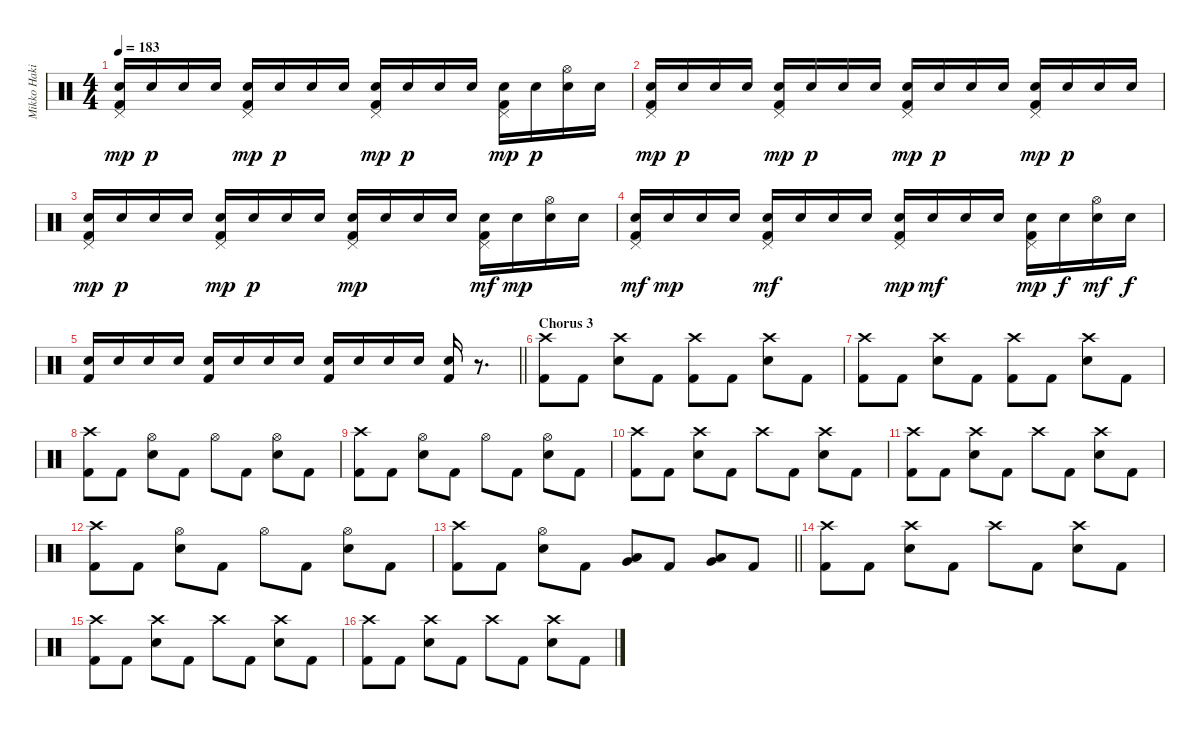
\track ("Mikko Hakila - Drums" "Mikko Haki") {instrument percussion}
\staff {score}
\articulation defaults
\ts (4 4)
\tempo 183
\clef neutral
\ks c
("Pedal Hi-Hat (hit)" "Electric Snare (hit)" "Kick (hit) 2").16{dy mp} "Electric Snare (hit)".16{dy p} "Electric Snare (hit)".16 "Electric Snare (hit)".16 ("Pedal Hi-Hat (hit)" "Electric Snare (hit)" "Kick (hit) 2").16{dy mp} "Electric Snare (hit)".16{dy p} "Electric Snare (hit)".16 "Electric Snare (hit)".16 ("Pedal Hi-Hat (hit)" "Electric Snare (hit)" "Kick (hit) 2").16{dy mp} "Electric Snare (hit)".16{dy p} "Electric Snare (hit)".16 "Electric Snare (hit)".16 ("Pedal Hi-Hat (hit)" "Electric Snare (hit)" "Kick (hit) 2").16{dy mp} "Electric Snare (hit)".16{dy p} ("Hi-Hat (open)" "Electric Snare (hit)").16 "Electric Snare (hit)".16 |
("Pedal Hi-Hat (hit)" "Electric Snare (hit)" "Kick (hit) 2").16{dy mp} "Electric Snare (hit)".16{dy p} "Electric Snare (hit)".16 "Electric Snare (hit)".16 ("Pedal Hi-Hat (hit)" "Electric Snare (hit)" "Kick (hit) 2").16{dy mp} "Electric Snare (hit)".16{dy p} "Electric Snare (hit)".16 "Electric Snare (hit)".16 ("Pedal Hi-Hat (hit)" "Electric Snare (hit)" "Kick (hit) 2").16{dy mp} "Electric Snare (hit)".16{dy p} "Electric Snare (hit)".16 "Electric Snare (hit)".16 ("Pedal Hi-Hat (hit)" "Electric Snare (hit)" "Kick (hit) 2").16{dy mp} "Electric Snare (hit)".16{dy p} "Electric Snare (hit)".16 "Electric Snare (hit)".16 |
("Pedal Hi-Hat (hit)" "Electric Snare (hit)" "Kick (hit) 2").16{dy mp} "Electric Snare (hit)".16{dy p} "Electric Snare (hit)".16 "Electric Snare (hit)".16 ("Pedal Hi-Hat (hit)" "Electric Snare (hit)" "Kick (hit) 2").16{dy mp} "Electric Snare (hit)".16{dy p} "Electric Snare (hit)".16 "Electric Snare (hit)".16 ("Pedal Hi-Hat (hit)" "Electric Snare (hit)" "Kick (hit) 2").16{dy mp} "Electric Snare (hit)".16 "Electric Snare (hit)".16 "Electric Snare (hit)".16 ("Pedal Hi-Hat (hit)" "Electric Snare (hit)" "Kick (hit) 2").16{dy mf} "Electric Snare (hit)".16{dy mp} ("Hi-Hat (open)" "Electric Snare (hit)").16 "Electric Snare (hit)".16 |
("Pedal Hi-Hat (hit)" "Electric Snare (hit)" "Kick (hit) 2").16{dy mf} "Electric Snare (hit)".16{dy mp} "Electric Snare (hit)".16 "Electric Snare (hit)".16 ("Pedal Hi-Hat (hit)" "Electric Snare (hit)" "Kick (hit) 2").16{dy mf} "Electric Snare (hit)".16 "Electric Snare (hit)".16 "Electric Snare (hit)".16 ("Pedal Hi-Hat (hit)" "Electric Snare (hit)" "Kick (hit) 2").16{dy mp} "Electric Snare (hit)".16{dy mf} "Electric Snare (hit)".16 "Electric Snare (hit)".16 ("Pedal Hi-Hat (hit)" "Electric Snare (hit)" "Kick (hit) 2").16{dy mp} "Electric Snare (hit)".16{dy f} ("Hi-Hat (open)" "Electric Snare (hit)").16{dy mf} "Electric Snare (hit)".16{dy f} |
\barLineRight lightlight
("Electric Snare (hit)" "Kick (hit) 2").16 "Electric Snare (hit)".16 "Electric Snare (hit)".16 "Electric Snare (hit)".16 ("Electric Snare (hit)" "Kick (hit) 2").16 "Electric Snare (hit)".16 "Electric Snare (hit)".16 "Electric Snare (hit)".16 ("Electric Snare (hit)" "Kick (hit) 2").16 "Electric Snare (hit)".16 "Electric Snare (hit)".16 "Electric Snare (hit)".16 ("Electric Snare (hit)" "Kick (hit) 2").16 r.8{d} |
\section ("" "Chorus 3")
("Crash high (hit)" "Kick (hit) 2").8 "Kick (hit) 2".8 ("Crash high (hit)" "Electric Snare (hit)").8 "Kick (hit) 2".8 ("Crash high (hit)" "Kick (hit) 2").8 "Kick (hit) 2".8 ("Crash high (hit)" "Electric Snare (hit)").8 "Kick (hit) 2".8 |
("Crash high (hit)" "Kick (hit) 2").8 "Kick (hit) 2".8 ("Crash high (hit)" "Electric Snare (hit)").8 "Kick (hit) 2".8 ("Crash high (hit)" "Kick (hit) 2").8 "Kick (hit) 2".8 ("Crash high (hit)" "Electric Snare (hit)").8 "Kick (hit) 2".8 |
("Crash high (hit)" "Kick (hit) 2").8 "Kick (hit) 2".8 ("Hi-Hat (open)" "Electric Snare (hit)").8 "Kick (hit) 2".8 "Hi-Hat (open)".8 "Kick (hit) 2".8 ("Hi-Hat (open)" "Electric Snare (hit)").8 "Kick (hit) 2".8 |
("Crash high (hit)" "Kick (hit) 2").8 "Kick (hit) 2".8 ("Hi-Hat (open)" "Electric Snare (hit)").8 "Kick (hit) 2".8 "Hi-Hat (open)".8 "Kick (hit) 2".8 ("Hi-Hat (open)" "Electric Snare (hit)").8 "Kick (hit) 2".8 |
("Crash high (hit)" "Kick (hit) 2").8 "Kick (hit) 2".8 ("Crash high (hit)" "Electric Snare (hit)").8 "Kick (hit) 2".8 "Crash high (hit)".8 "Kick (hit) 2".8 ("Crash high (hit)" "Electric Snare (hit)").8 "Kick (hit) 2".8 |
("Crash high (hit)" "Kick (hit) 2").8 "Kick (hit) 2".8 ("Crash high (hit)" "Electric Snare (hit)").8 "Kick (hit) 2".8 "Crash high (hit)".8 "Kick (hit) 2".8 ("Crash high (hit)" "Electric Snare (hit)").8 "Kick (hit) 2".8 |
("Crash high (hit)" "Kick (hit) 2").8 "Kick (hit) 2".8 ("Hi-Hat (open)" "Electric Snare (hit)").8 "Kick (hit) 2".8 "Hi-Hat (open)".8 "Kick (hit) 2".8 ("Hi-Hat (open)" "Electric Snare (hit)").8 "Kick (hit) 2".8 |
\barLineRight lightlight
("Crash high (hit)" "Kick (hit) 2").8 "Kick (hit) 2".8 ("Hi-Hat (open)" "Electric Snare (hit)").8 "Kick (hit) 2".8 ("Low Tom (hit)" "Very Low Tom (hit)").8 "Kick (hit) 2".8 ("Low Tom (hit)" "Very Low Tom (hit)").8 "Kick (hit) 2".8 |
("Crash high (hit)" "Kick (hit) 2").8 "Kick (hit) 2".8 ("Crash high (hit)" "Electric Snare (hit)").8 "Kick (hit) 2".8 "Crash high (hit)".8 "Kick (hit) 2".8 ("Crash high (hit)" "Electric Snare (hit)").8 "Kick (hit) 2".8 |
("Crash high (hit)" "Kick (hit) 2").8 "Kick (hit) 2".8 ("Crash high (hit)" "Electric Snare (hit)").8 "Kick (hit) 2".8 "Crash high (hit)".8 "Kick (hit) 2".8 ("Crash high (hit)" "Electric Snare (hit)").8 "Kick (hit) 2".8 |
("Crash high (hit)" "Kick (hit) 2").8 "Kick (hit) 2".8 ("Crash high (hit)" "Electric Snare (hit)").8 "Kick (hit) 2".8 "Crash high (hit)".8 "Kick (hit) 2".8 ("Crash high (hit)" "Electric Snare (hit)").8 "Kick (hit) 2".8
